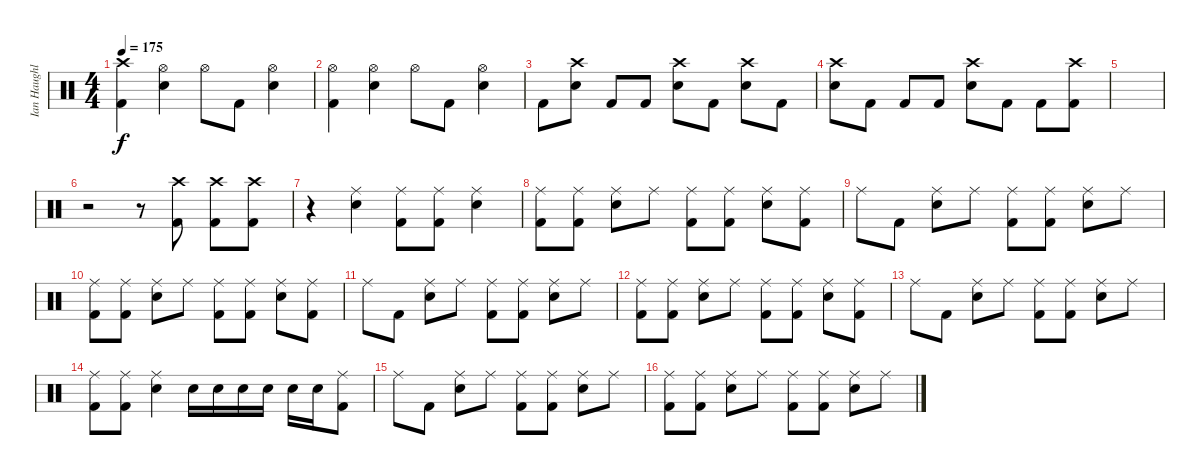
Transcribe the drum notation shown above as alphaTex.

\track ("Ian Haughland" "Ian Haughl") {instrument percussion}
\staff {score}
\articulation defaults
\ts (4 4)
\tempo 175
\clef neutral
\ks c
("Crash high (hit)" "Kick (hit) 2").4{dy f} ("Hi-Hat (open)" "Snare (hit) 2").4 "Hi-Hat (open)".8 "Kick (hit) 2".8 ("Hi-Hat (open)" "Snare (hit) 2").4 |
("Hi-Hat (open)" "Kick (hit) 2").4 ("Hi-Hat (open)" "Snare (hit) 2").4 "Hi-Hat (open)".8 "Kick (hit) 2".8 ("Hi-Hat (open)" "Snare (hit) 2").4 |
"Kick (hit) 2".8 ("Crash high (hit)" "Snare (hit) 2").8 "Kick (hit) 2".8 "Kick (hit) 2".8 ("Crash high (hit)" "Snare (hit) 2").8 "Kick (hit) 2".8 ("Crash high (hit)" "Snare (hit) 2").8 "Kick (hit) 2".8 |
("Crash high (hit)" "Snare (hit) 2").8 "Kick (hit) 2".8 "Kick (hit) 2".8 "Kick (hit) 2".8 ("Crash high (hit)" "Snare (hit) 2").8 "Kick (hit) 2".8 "Kick (hit) 2".8 ("Crash high (hit)" "Kick (hit) 2").8 |
|
r.2 r.8 ("Crash high (hit)" "Kick (hit) 2").8 ("Crash high (hit)" "Kick (hit) 2").8 ("Crash high (hit)" "Kick (hit) 2").8 |
r.4 ("Ride (middle)" "Snare (hit) 2").4 ("Ride (middle)" "Kick (hit) 2").8 ("Ride (middle)" "Kick (hit) 2").8 ("Ride (middle)" "Snare (hit) 2").4 |
("Ride (middle)" "Kick (hit) 2").8 ("Ride (middle)" "Kick (hit) 2").8 ("Ride (middle)" "Snare (hit) 2").8 "Ride (middle)".8 ("Ride (middle)" "Kick (hit) 2").8 ("Ride (middle)" "Kick (hit) 2").8 ("Ride (middle)" "Snare (hit) 2").8 ("Ride (middle)" "Kick (hit) 2").8 |
"Ride (middle)".8 "Kick (hit) 2".8 ("Ride (middle)" "Snare (hit) 2").8 "Ride (middle)".8 ("Ride (middle)" "Kick (hit) 2").8 ("Ride (middle)" "Kick (hit) 2").8 ("Ride (middle)" "Snare (hit) 2").8 "Ride (middle)".8 |
("Ride (middle)" "Kick (hit) 2").8 ("Ride (middle)" "Kick (hit) 2").8 ("Ride (middle)" "Snare (hit) 2").8 "Ride (middle)".8 ("Ride (middle)" "Kick (hit) 2").8 ("Ride (middle)" "Kick (hit) 2").8 ("Ride (middle)" "Snare (hit) 2").8 ("Ride (middle)" "Kick (hit) 2").8 |
"Ride (middle)".8 "Kick (hit) 2".8 ("Ride (middle)" "Snare (hit) 2").8 "Ride (middle)".8 ("Ride (middle)" "Kick (hit) 2").8 ("Ride (middle)" "Kick (hit) 2").8 ("Ride (middle)" "Snare (hit) 2").8 "Ride (middle)".8 |
("Ride (middle)" "Kick (hit) 2").8 ("Ride (middle)" "Kick (hit) 2").8 ("Ride (middle)" "Snare (hit) 2").8 "Ride (middle)".8 ("Ride (middle)" "Kick (hit) 2").8 ("Ride (middle)" "Kick (hit) 2").8 ("Ride (middle)" "Snare (hit) 2").8 ("Ride (middle)" "Kick (hit) 2").8 |
"Ride (middle)".8 "Kick (hit) 2".8 ("Ride (middle)" "Snare (hit) 2").8 "Ride (middle)".8 ("Ride (middle)" "Kick (hit) 2").8 ("Ride (middle)" "Kick (hit) 2").8 ("Ride (middle)" "Snare (hit) 2").8 "Ride (middle)".8 |
("Ride (middle)" "Kick (hit) 2").8 ("Ride (middle)" "Kick (hit) 2").8 ("Ride (middle)" "Snare (hit) 2").4 "Snare (hit) 2".16 "Snare (hit) 2".16 "Snare (hit) 2".16 "Snare (hit) 2".16 "Snare (hit) 2".16 "Snare (hit) 2".16 ("Ride (middle)" "Kick (hit) 2").8 |
"Ride (middle)".8 "Kick (hit) 2".8 ("Ride (middle)" "Snare (hit) 2").8 "Ride (middle)".8 ("Ride (middle)" "Kick (hit) 2").8 ("Ride (middle)" "Kick (hit) 2").8 ("Ride (middle)" "Snare (hit) 2").8 "Ride (middle)".8 |
("Ride (middle)" "Kick (hit) 2").8 ("Ride (middle)" "Kick (hit) 2").8 ("Ride (middle)" "Snare (hit) 2").8 "Ride (middle)".8 ("Ride (middle)" "Kick (hit) 2").8 ("Ride (middle)" "Kick (hit) 2").8 ("Ride (middle)" "Snare (hit) 2").8 "Ride (middle)".8
